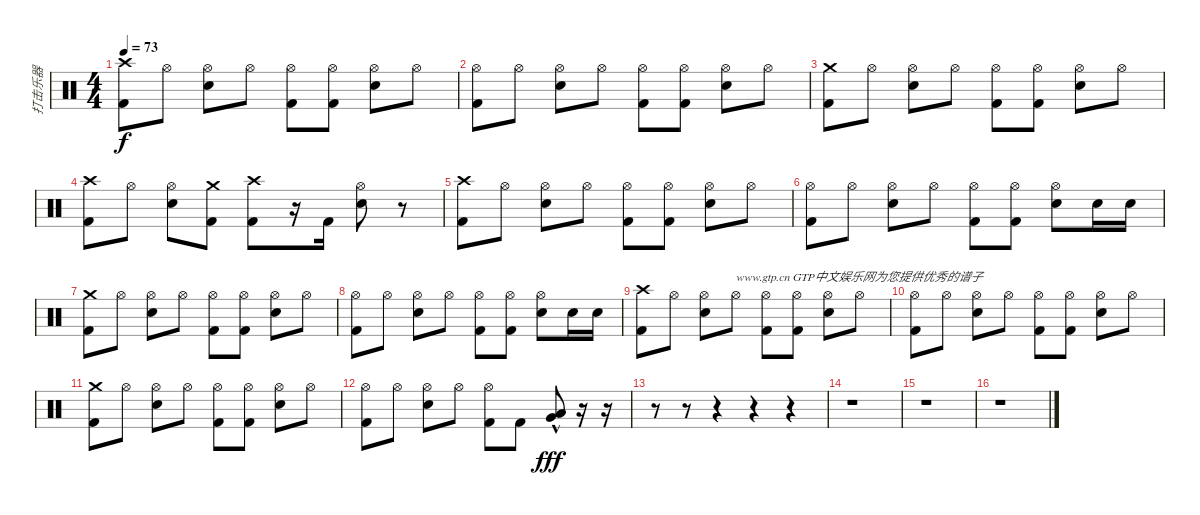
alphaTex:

\track ("打击乐器" "打击乐器") {instrument percussion}
\staff {score}
\articulation defaults
\ts (4 4)
\tempo 73
\clef neutral
\ks c
("Crash high (hit)" "Kick (hit) 2").8{dy f} "Hi-Hat (open)".8 ("Hi-Hat (open)" "Electric Snare (hit)").8 "Hi-Hat (open)".8 ("Hi-Hat (open)" "Kick (hit) 2").8 ("Hi-Hat (open)" "Kick (hit) 2").8 ("Hi-Hat (open)" "Electric Snare (hit)").8 "Hi-Hat (open)".8 |
("Hi-Hat (open)" "Kick (hit) 2").8 "Hi-Hat (open)".8 ("Hi-Hat (open)" "Electric Snare (hit)").8 "Hi-Hat (open)".8 ("Hi-Hat (open)" "Kick (hit) 2").8 ("Hi-Hat (open)" "Kick (hit) 2").8 ("Hi-Hat (open)" "Electric Snare (hit)").8 "Hi-Hat (open)".8 |
("Crash medium (hit)" "Kick (hit) 2").8 "Hi-Hat (open)".8 ("Hi-Hat (open)" "Electric Snare (hit)").8 "Hi-Hat (open)".8 ("Hi-Hat (open)" "Kick (hit) 2").8 ("Hi-Hat (open)" "Kick (hit) 2").8 ("Hi-Hat (open)" "Electric Snare (hit)").8 "Hi-Hat (open)".8 |
("Crash high (hit)" "Kick (hit) 2").8 "Hi-Hat (open)".8 ("Hi-Hat (open)" "Electric Snare (hit)").8 ("Crash medium (hit)" "Kick (hit) 2").8 ("Crash high (hit)" "Kick (hit) 2").8 r.16 "Kick (hit) 2".16 ("Hi-Hat (open)" "Electric Snare (hit)").8 r.8 |
("Crash high (hit)" "Kick (hit) 2").8 "Hi-Hat (open)".8 ("Hi-Hat (open)" "Electric Snare (hit)").8 "Hi-Hat (open)".8 ("Hi-Hat (open)" "Kick (hit) 2").8 ("Hi-Hat (open)" "Kick (hit) 2").8 ("Hi-Hat (open)" "Electric Snare (hit)").8 "Hi-Hat (open)".8 |
("Hi-Hat (open)" "Kick (hit) 2").8 "Hi-Hat (open)".8 ("Hi-Hat (open)" "Electric Snare (hit)").8 "Hi-Hat (open)".8 ("Hi-Hat (open)" "Kick (hit) 2").8 ("Hi-Hat (open)" "Kick (hit) 2").8 ("Hi-Hat (open)" "Electric Snare (hit)").8 "Electric Snare (hit)".16 "Electric Snare (hit)".16 |
("Crash medium (hit)" "Kick (hit) 2").8 "Hi-Hat (open)".8 ("Hi-Hat (open)" "Electric Snare (hit)").8 "Hi-Hat (open)".8 ("Hi-Hat (open)" "Kick (hit) 2").8 ("Hi-Hat (open)" "Kick (hit) 2").8 ("Hi-Hat (open)" "Electric Snare (hit)").8 "Hi-Hat (open)".8 |
("Hi-Hat (open)" "Kick (hit) 2").8 "Hi-Hat (open)".8 ("Hi-Hat (open)" "Electric Snare (hit)").8 "Hi-Hat (open)".8 ("Hi-Hat (open)" "Kick (hit) 2").8 ("Hi-Hat (open)" "Kick (hit) 2").8 ("Hi-Hat (open)" "Electric Snare (hit)").8 "Electric Snare (hit)".16 "Electric Snare (hit)".16 |
("Crash high (hit)" "Kick (hit) 2").8 "Hi-Hat (open)".8 ("Hi-Hat (open)" "Electric Snare (hit)").8 "Hi-Hat (open)".8{txt "www.gtp.cn GTP中文娱乐网为您提供优秀的谱子"} ("Hi-Hat (open)" "Kick (hit) 2").8 ("Hi-Hat (open)" "Kick (hit) 2").8 ("Hi-Hat (open)" "Electric Snare (hit)").8 "Hi-Hat (open)".8 |
("Hi-Hat (open)" "Kick (hit) 2").8 "Hi-Hat (open)".8 ("Hi-Hat (open)" "Electric Snare (hit)").8 "Hi-Hat (open)".8 ("Hi-Hat (open)" "Kick (hit) 2").8 ("Hi-Hat (open)" "Kick (hit) 2").8 ("Hi-Hat (open)" "Electric Snare (hit)").8 "Hi-Hat (open)".8 |
("Crash medium (hit)" "Kick (hit) 2").8 "Hi-Hat (open)".8 ("Hi-Hat (open)" "Electric Snare (hit)").8 "Hi-Hat (open)".8 ("Hi-Hat (open)" "Kick (hit) 2").8 ("Hi-Hat (open)" "Kick (hit) 2").8 ("Hi-Hat (open)" "Electric Snare (hit)").8 "Hi-Hat (open)".8 |
("Hi-Hat (open)" "Kick (hit) 2").8 "Hi-Hat (open)".8 ("Hi-Hat (open)" "Electric Snare (hit)").8 "Hi-Hat (open)".8 ("Hi-Hat (open)" "Kick (hit) 2").8 "Kick (hit) 2".8 ("Low Floor Tom (hit)" "Very Low Tom (hit)"{hac}).8{dy fff} r.16 r.16 |
r.8 r.8 r.4 r.4 r.4 |
r.1 |
r.1 |
r.1
